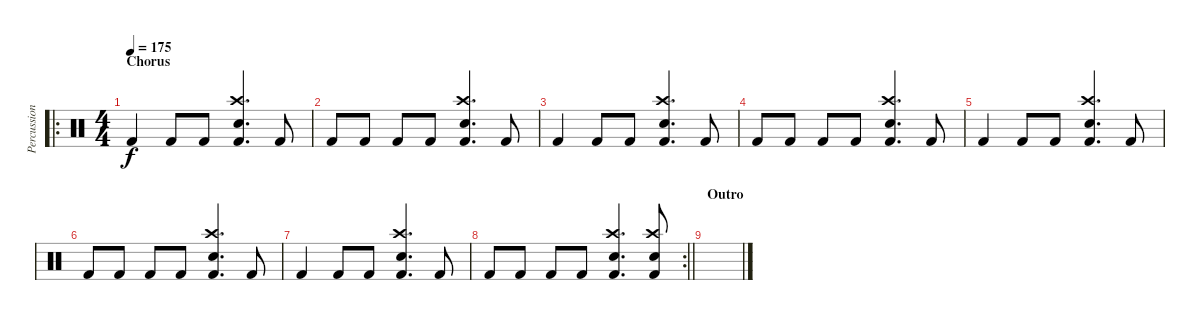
\track ("Percussion" "Percussion") {instrument percussion}
\staff {score}
\articulation defaults
\ro
\ts (4 4)
\section ("" "Chorus")
\tempo 175
\clef neutral
\ks c "Kick (hit) 2".4{dy f} "Kick (hit) 2".8 "Kick (hit) 2".8
("Crash high (hit)" "Snare (hit) 2" "Kick (hit) 2").4{d} "Kick (hit) 2".8 |
"Kick (hit) 2".8 "Kick (hit) 2".8 "Kick (hit) 2".8 "Kick (hit) 2".8 ("Crash high (hit)" "Snare (hit) 2" "Kick (hit) 2").4{d} "Kick (hit) 2".8 |
"Kick (hit) 2".4 "Kick (hit) 2".8 "Kick (hit) 2".8 ("Crash high (hit)" "Snare (hit) 2" "Kick (hit) 2").4{d} "Kick (hit) 2".8 |
"Kick (hit) 2".8 "Kick (hit) 2".8 "Kick (hit) 2".8 "Kick (hit) 2".8 ("Crash high (hit)" "Snare (hit) 2" "Kick (hit) 2").4{d} "Kick (hit) 2".8 |
"Kick (hit) 2".4 "Kick (hit) 2".8 "Kick (hit) 2".8 ("Crash high (hit)" "Snare (hit) 2" "Kick (hit) 2").4{d} "Kick (hit) 2".8 |
"Kick (hit) 2".8 "Kick (hit) 2".8 "Kick (hit) 2".8 "Kick (hit) 2".8 ("Crash high (hit)" "Snare (hit) 2" "Kick (hit) 2").4{d} "Kick (hit) 2".8 |
"Kick (hit) 2".4 "Kick (hit) 2".8 "Kick (hit) 2".8 ("Crash high (hit)" "Snare (hit) 2" "Kick (hit) 2").4{d} "Kick (hit) 2".8 |
\rc 2
\barLineRight lightlight "Kick (hit) 2".8 "Kick (hit) 2".8 "Kick (hit) 2".8 "Kick (hit) 2".8
("Crash high (hit)" "Snare (hit) 2" "Kick (hit) 2").4{d} ("Crash high (hit)" "Snare (hit) 2" "Kick (hit) 2").8 |
\section ("" "Outro")
